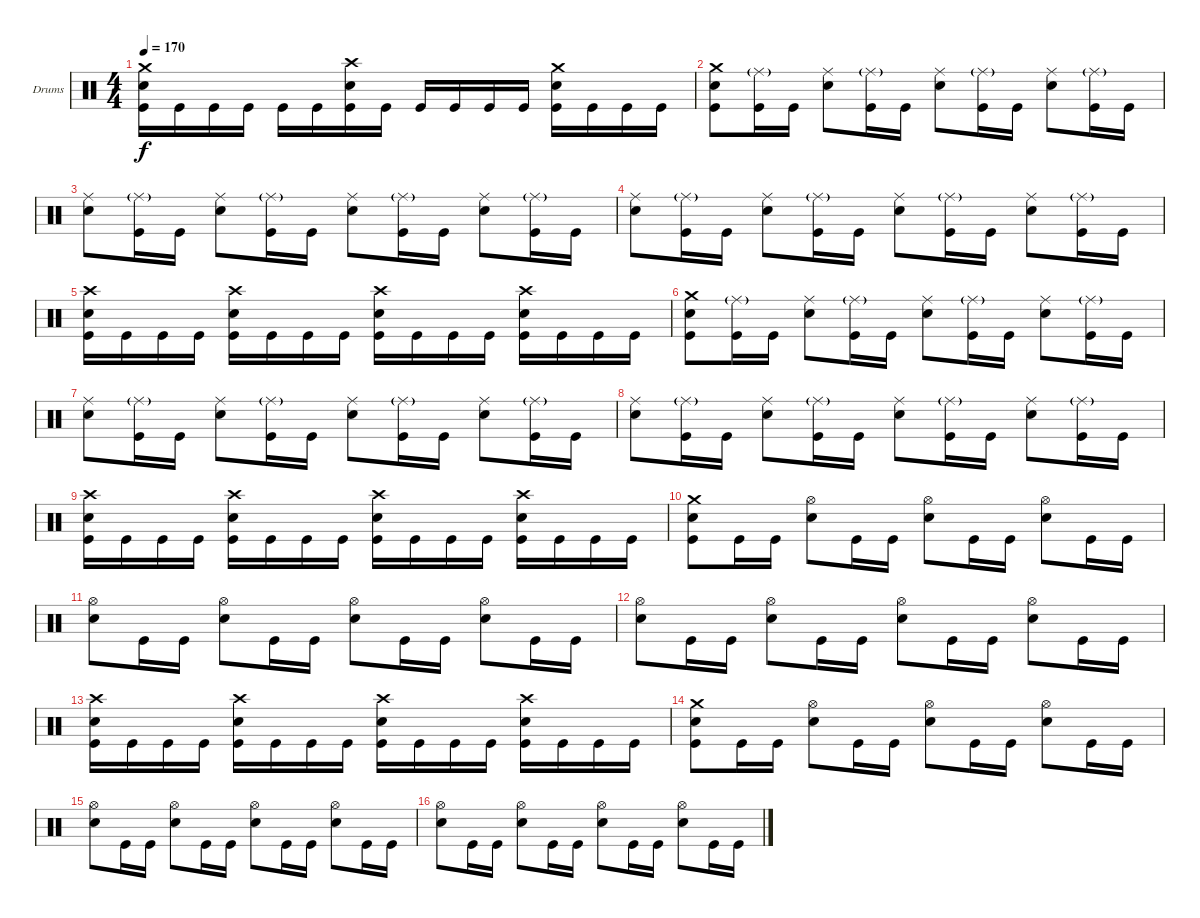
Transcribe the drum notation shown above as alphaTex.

\bracketExtendMode groupsimilarinstruments
\firstSystemTrackNameOrientation horizontal
\otherSystemsTrackNameOrientation horizontal
\track ("Дмитрий Кривенков" "Drums") {instrument percussion}
\staff {score}
\articulation defaults
\ts (4 4)
\tempo 170
\clef neutral
\ks c
("Crash medium (hit)" "Snare (hit) 2" "Kick (hit)").16{dy f} "Kick (hit)".16 "Kick (hit)".16 "Kick (hit)".16 "Kick (hit)".16 "Kick (hit)".16 ("Crash high (hit)" "Snare (hit) 2" "Kick (hit)").16 "Kick (hit)".16 "Kick (hit)".16 "Kick (hit)".16 "Kick (hit)".16 "Kick (hit)".16 ("Crash medium (hit)" "Snare (hit) 2" "Kick (hit)").16 "Kick (hit)".16 "Kick (hit)".16 "Kick (hit)".16 |
("Crash medium (hit)" "Snare (hit) 2" "Kick (hit)").8 ("Ride (middle)"{g} "Kick (hit)").16 "Kick (hit)".16 ("Ride (middle)" "Snare (hit) 2").8 ("Ride (middle)"{g} "Kick (hit)").16 "Kick (hit)".16 ("Ride (middle)" "Snare (hit) 2").8 ("Ride (middle)"{g} "Kick (hit)").16 "Kick (hit)".16 ("Ride (middle)" "Snare (hit) 2").8 ("Ride (middle)"{g} "Kick (hit)").16 "Kick (hit)".16 |
("Ride (middle)" "Snare (hit) 2").8 ("Ride (middle)"{g} "Kick (hit)").16 "Kick (hit)".16 ("Ride (middle)" "Snare (hit) 2").8 ("Ride (middle)"{g} "Kick (hit)").16 "Kick (hit)".16 ("Ride (middle)" "Snare (hit) 2").8 ("Ride (middle)"{g} "Kick (hit)").16 "Kick (hit)".16 ("Ride (middle)" "Snare (hit) 2").8 ("Ride (middle)"{g} "Kick (hit)").16 "Kick (hit)".16 |
("Ride (middle)" "Snare (hit) 2").8 ("Ride (middle)"{g} "Kick (hit)").16 "Kick (hit)".16 ("Ride (middle)" "Snare (hit) 2").8 ("Ride (middle)"{g} "Kick (hit)").16 "Kick (hit)".16 ("Ride (middle)" "Snare (hit) 2").8 ("Ride (middle)"{g} "Kick (hit)").16 "Kick (hit)".16 ("Ride (middle)" "Snare (hit) 2").8 ("Ride (middle)"{g} "Kick (hit)").16 "Kick (hit)".16 |
("Crash high (hit)" "Snare (hit) 2" "Kick (hit)").16 "Kick (hit)".16 "Kick (hit)".16 "Kick (hit)".16 ("Crash high (hit)" "Snare (hit) 2" "Kick (hit)").16 "Kick (hit)".16 "Kick (hit)".16 "Kick (hit)".16 ("Crash high (hit)" "Snare (hit) 2" "Kick (hit)").16 "Kick (hit)".16 "Kick (hit)".16 "Kick (hit)".16 ("Crash high (hit)" "Snare (hit) 2" "Kick (hit)").16 "Kick (hit)".16 "Kick (hit)".16 "Kick (hit)".16 |
("Crash medium (hit)" "Snare (hit) 2" "Kick (hit)").8 ("Ride (middle)"{g} "Kick (hit)").16 "Kick (hit)".16 ("Ride (middle)" "Snare (hit) 2").8 ("Ride (middle)"{g} "Kick (hit)").16 "Kick (hit)".16 ("Ride (middle)" "Snare (hit) 2").8 ("Ride (middle)"{g} "Kick (hit)").16 "Kick (hit)".16 ("Ride (middle)" "Snare (hit) 2").8 ("Ride (middle)"{g} "Kick (hit)").16 "Kick (hit)".16 |
("Ride (middle)" "Snare (hit) 2").8 ("Ride (middle)"{g} "Kick (hit)").16 "Kick (hit)".16 ("Ride (middle)" "Snare (hit) 2").8 ("Ride (middle)"{g} "Kick (hit)").16 "Kick (hit)".16 ("Ride (middle)" "Snare (hit) 2").8 ("Ride (middle)"{g} "Kick (hit)").16 "Kick (hit)".16 ("Ride (middle)" "Snare (hit) 2").8 ("Ride (middle)"{g} "Kick (hit)").16 "Kick (hit)".16 |
("Ride (middle)" "Snare (hit) 2").8 ("Ride (middle)"{g} "Kick (hit)").16 "Kick (hit)".16 ("Ride (middle)" "Snare (hit) 2").8 ("Ride (middle)"{g} "Kick (hit)").16 "Kick (hit)".16 ("Ride (middle)" "Snare (hit) 2").8 ("Ride (middle)"{g} "Kick (hit)").16 "Kick (hit)".16 ("Ride (middle)" "Snare (hit) 2").8 ("Ride (middle)"{g} "Kick (hit)").16 "Kick (hit)".16 |
("Crash high (hit)" "Snare (hit) 2" "Kick (hit)").16 "Kick (hit)".16 "Kick (hit)".16 "Kick (hit)".16 ("Crash high (hit)" "Snare (hit) 2" "Kick (hit)").16 "Kick (hit)".16 "Kick (hit)".16 "Kick (hit)".16 ("Crash high (hit)" "Snare (hit) 2" "Kick (hit)").16 "Kick (hit)".16 "Kick (hit)".16 "Kick (hit)".16 ("Crash high (hit)" "Snare (hit) 2" "Kick (hit)").16 "Kick (hit)".16 "Kick (hit)".16 "Kick (hit)".16 |
("Crash medium (hit)" "Snare (hit) 2" "Kick (hit)").8 "Kick (hit)".16 "Kick (hit)".16 ("Hi-Hat (open)" "Snare (hit) 2").8 "Kick (hit)".16 "Kick (hit)".16 ("Hi-Hat (open)" "Snare (hit) 2").8 "Kick (hit)".16 "Kick (hit)".16 ("Hi-Hat (open)" "Snare (hit) 2").8 "Kick (hit)".16 "Kick (hit)".16 |
("Hi-Hat (open)" "Snare (hit) 2").8 "Kick (hit)".16 "Kick (hit)".16 ("Hi-Hat (open)" "Snare (hit) 2").8 "Kick (hit)".16 "Kick (hit)".16 ("Hi-Hat (open)" "Snare (hit) 2").8 "Kick (hit)".16 "Kick (hit)".16 ("Hi-Hat (open)" "Snare (hit) 2").8 "Kick (hit)".16 "Kick (hit)".16 |
("Hi-Hat (open)" "Snare (hit) 2").8 "Kick (hit)".16 "Kick (hit)".16 ("Hi-Hat (open)" "Snare (hit) 2").8 "Kick (hit)".16 "Kick (hit)".16 ("Hi-Hat (open)" "Snare (hit) 2").8 "Kick (hit)".16 "Kick (hit)".16 ("Hi-Hat (open)" "Snare (hit) 2").8 "Kick (hit)".16 "Kick (hit)".16 |
("Crash high (hit)" "Snare (hit) 2" "Kick (hit)").16 "Kick (hit)".16 "Kick (hit)".16 "Kick (hit)".16 ("Crash high (hit)" "Snare (hit) 2" "Kick (hit)").16 "Kick (hit)".16 "Kick (hit)".16 "Kick (hit)".16 ("Crash high (hit)" "Snare (hit) 2" "Kick (hit)").16 "Kick (hit)".16 "Kick (hit)".16 "Kick (hit)".16 ("Crash high (hit)" "Snare (hit) 2" "Kick (hit)").16 "Kick (hit)".16 "Kick (hit)".16 "Kick (hit)".16 |
("Crash medium (hit)" "Snare (hit) 2" "Kick (hit)").8 "Kick (hit)".16 "Kick (hit)".16 ("Hi-Hat (open)" "Snare (hit) 2").8 "Kick (hit)".16 "Kick (hit)".16 ("Hi-Hat (open)" "Snare (hit) 2").8 "Kick (hit)".16 "Kick (hit)".16 ("Hi-Hat (open)" "Snare (hit) 2").8 "Kick (hit)".16 "Kick (hit)".16 |
("Hi-Hat (open)" "Snare (hit) 2").8 "Kick (hit)".16 "Kick (hit)".16 ("Hi-Hat (open)" "Snare (hit) 2").8 "Kick (hit)".16 "Kick (hit)".16 ("Hi-Hat (open)" "Snare (hit) 2").8 "Kick (hit)".16 "Kick (hit)".16 ("Hi-Hat (open)" "Snare (hit) 2").8 "Kick (hit)".16 "Kick (hit)".16 |
("Hi-Hat (open)" "Snare (hit) 2").8 "Kick (hit)".16 "Kick (hit)".16 ("Hi-Hat (open)" "Snare (hit) 2").8 "Kick (hit)".16 "Kick (hit)".16 ("Hi-Hat (open)" "Snare (hit) 2").8 "Kick (hit)".16 "Kick (hit)".16 ("Hi-Hat (open)" "Snare (hit) 2").8 "Kick (hit)".16 "Kick (hit)".16
